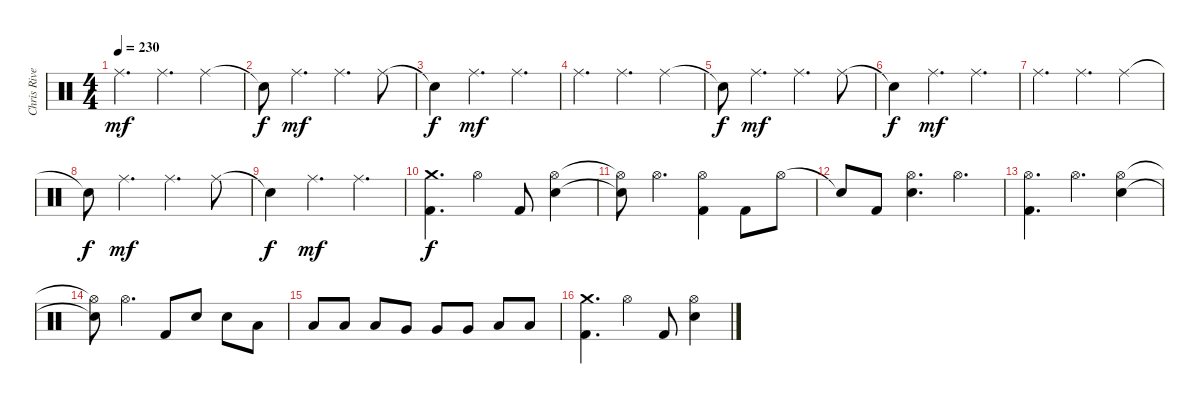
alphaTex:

\track ("Chris Rivers" "Chris Rive") {instrument percussion}
\staff {score}
\articulation defaults
\ts (4 4)
\tempo 230
\clef neutral
\ks c "Ride (middle)".4{d dy mf} "Ride (middle)".4{d} "Ride (middle)".4
|
"Snare (hit)"{t}.8{dy f} "Ride (middle)".4{d dy mf} "Ride (middle)".4{d} "Ride (middle)".8 |
"Snare (hit)"{t}.4{dy f} "Ride (middle)".4{d dy mf} "Ride (middle)".4{d} |
"Ride (middle)".4{d} "Ride (middle)".4{d} "Ride (middle)".4 |
"Snare (hit)"{t}.8{dy f} "Ride (middle)".4{d dy mf} "Ride (middle)".4{d} "Ride (middle)".8 |
"Snare (hit)"{t}.4{dy f} "Ride (middle)".4{d dy mf} "Ride (middle)".4{d} |
"Ride (middle)".4{d} "Ride (middle)".4{d} "Ride (middle)".4 |
"Snare (hit)"{t}.8{dy f} "Ride (middle)".4{d dy mf} "Ride (middle)".4{d} "Ride (middle)".8 |
"Snare (hit)"{t}.4{dy f} "Ride (middle)".4{d dy mf} "Ride (middle)".4{d} |
("Crash medium (hit)" "Kick (hit) 2").4{d dy f} "Hi-Hat (open)".4 "Kick (hit) 2".8 ("Hi-Hat (open)" "Electric Snare (hit)").4 |
("Hi-Hat (open)"{t} "Snare (hit)"{t}).8 "Hi-Hat (open)".4{d} ("Hi-Hat (open)" "Kick (hit) 2").4 "Kick (hit) 2".8 "Hi-Hat (open)".8 |
"Snare (hit)"{t}.8 "Kick (hit) 2".8 ("Hi-Hat (open)" "Electric Snare (hit)").4{d} "Hi-Hat (open)".4{d} |
("Hi-Hat (open)" "Kick (hit) 2").4{d} "Hi-Hat (open)".4{d} ("Hi-Hat (open)" "Electric Snare (hit)").4 |
("Hi-Hat (open)"{t} "Snare (hit)"{t}).8 "Hi-Hat (open)".4{d} "Kick (hit) 2".8 "Electric Snare (hit)".8 "Electric Snare (hit)".8 "Low Tom (hit)".8 |
"Low Tom (hit)".8 "Low Tom (hit)".8 "Low Tom (hit)".8 "Very Low Tom (hit)".8 "Very Low Tom (hit)".8 "Very Low Tom (hit)".8 "Low Floor Tom (hit)".8 "Low Floor Tom (hit)".8 |
("Crash medium (hit)" "Kick (hit) 2").4{d} "Hi-Hat (open)".4 "Kick (hit) 2".8 ("Hi-Hat (open)" "Electric Snare (hit)").4
